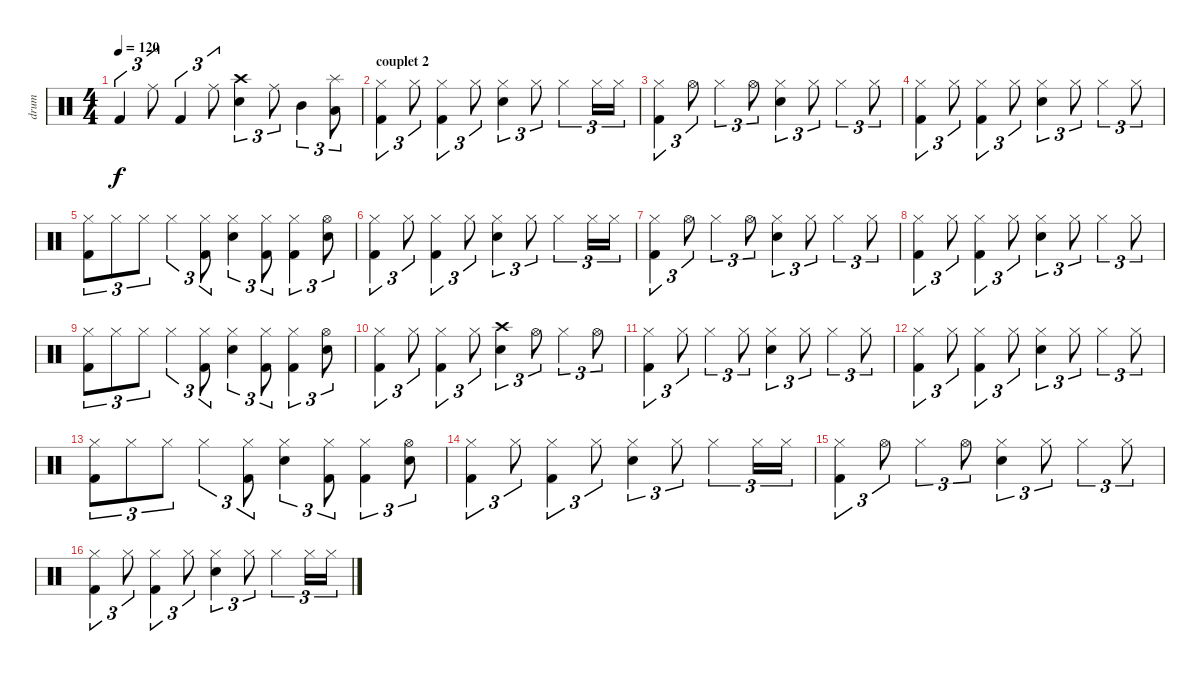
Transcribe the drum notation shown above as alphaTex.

\track ("drum" "drum") {instrument percussion}
\staff {score}
\articulation defaults
\ts (4 4)
\tempo 120
\clef neutral
\ks c "Kick (hit) 2".4{tu (3 2) dy f} "Ride (middle)".8{tu (3 2)} "Kick (hit) 2".4{tu (3 2)} "Ride (middle)".8{tu (3 2)}
("Crash high (hit)" "Electric Snare (hit)").4{tu (3 2)} "Ride (middle)".8{tu (3 2)} "Mid Tom (hit)".4{tu (3 2)} ("Splash (hit)" "Low Tom (hit)").8{tu (3 2)} |
\section ("" "couplet 2")
("Hi-Hat (closed)" "Kick (hit) 2").4{tu (3 2)} "Hi-Hat (closed)".8{tu (3 2)} ("Hi-Hat (closed)" "Kick (hit) 2").4{tu (3 2)} "Hi-Hat (closed)".8{tu (3 2)} ("Hi-Hat (closed)" "Electric Snare (hit)").4{tu (3 2)} "Hi-Hat (closed)".8{tu (3 2)} "Hi-Hat (closed)".4{tu (3 2)} "Hi-Hat (closed)".16{tu (3 2)} "Hi-Hat (closed)".16{tu (3 2)} |
("Hi-Hat (closed)" "Kick (hit) 2").4{tu (3 2)} "Hi-Hat (open)".8{tu (3 2)} "Hi-Hat (closed)".4{tu (3 2)} "Hi-Hat (open)".8{tu (3 2)} ("Hi-Hat (closed)" "Electric Snare (hit)").4{tu (3 2)} "Hi-Hat (closed)".8{tu (3 2)} "Hi-Hat (closed)".4{tu (3 2)} "Hi-Hat (closed)".8{tu (3 2)} |
("Hi-Hat (closed)" "Kick (hit) 2").4{tu (3 2)} "Hi-Hat (closed)".8{tu (3 2)} ("Hi-Hat (closed)" "Kick (hit) 2").4{tu (3 2)} "Hi-Hat (closed)".8{tu (3 2)} ("Hi-Hat (closed)" "Electric Snare (hit)").4{tu (3 2)} "Hi-Hat (closed)".8{tu (3 2)} "Hi-Hat (closed)".4{tu (3 2)} "Hi-Hat (closed)".8{tu (3 2)} |
("Hi-Hat (closed)" "Kick (hit) 2").8{tu (3 2)} "Hi-Hat (closed)".8{tu (3 2)} "Hi-Hat (closed)".8{tu (3 2)} "Hi-Hat (closed)".4{tu (3 2)} ("Hi-Hat (closed)" "Kick (hit) 2").8{tu (3 2)} ("Hi-Hat (closed)" "Electric Snare (hit)").4{tu (3 2)} ("Hi-Hat (closed)" "Kick (hit) 2").8{tu (3 2)} ("Hi-Hat (closed)" "Kick (hit) 2").4{tu (3 2)} ("Hi-Hat (open)" "Electric Snare (hit)").8{tu (3 2)} |
("Hi-Hat (closed)" "Kick (hit) 2").4{tu (3 2)} "Hi-Hat (closed)".8{tu (3 2)} ("Hi-Hat (closed)" "Kick (hit) 2").4{tu (3 2)} "Hi-Hat (closed)".8{tu (3 2)} ("Hi-Hat (closed)" "Electric Snare (hit)").4{tu (3 2)} "Hi-Hat (closed)".8{tu (3 2)} "Hi-Hat (closed)".4{tu (3 2)} "Hi-Hat (closed)".16{tu (3 2)} "Hi-Hat (closed)".16{tu (3 2)} |
("Hi-Hat (closed)" "Kick (hit) 2").4{tu (3 2)} "Hi-Hat (open)".8{tu (3 2)} "Hi-Hat (closed)".4{tu (3 2)} "Hi-Hat (open)".8{tu (3 2)} ("Hi-Hat (closed)" "Electric Snare (hit)").4{tu (3 2)} "Hi-Hat (closed)".8{tu (3 2)} "Hi-Hat (closed)".4{tu (3 2)} "Hi-Hat (closed)".8{tu (3 2)} |
("Hi-Hat (closed)" "Kick (hit) 2").4{tu (3 2)} "Hi-Hat (closed)".8{tu (3 2)} ("Hi-Hat (closed)" "Kick (hit) 2").4{tu (3 2)} "Hi-Hat (closed)".8{tu (3 2)} ("Hi-Hat (closed)" "Electric Snare (hit)").4{tu (3 2)} "Hi-Hat (closed)".8{tu (3 2)} "Hi-Hat (closed)".4{tu (3 2)} "Hi-Hat (closed)".8{tu (3 2)} |
("Hi-Hat (closed)" "Kick (hit) 2").8{tu (3 2)} "Hi-Hat (closed)".8{tu (3 2)} "Hi-Hat (closed)".8{tu (3 2)} "Hi-Hat (closed)".4{tu (3 2)} ("Hi-Hat (closed)" "Kick (hit) 2").8{tu (3 2)} ("Hi-Hat (closed)" "Electric Snare (hit)").4{tu (3 2)} ("Hi-Hat (closed)" "Kick (hit) 2").8{tu (3 2)} ("Hi-Hat (closed)" "Kick (hit) 2").4{tu (3 2)} ("Hi-Hat (open)" "Electric Snare (hit)").8{tu (3 2)} |
("Hi-Hat (closed)" "Kick (hit) 2").4{tu (3 2)} "Hi-Hat (closed)".8{tu (3 2)} ("Hi-Hat (closed)" "Kick (hit) 2").4{tu (3 2)} "Hi-Hat (closed)".8{tu (3 2)} ("Crash high (hit)" "Electric Snare (hit)").4{tu (3 2)} "Hi-Hat (open)".8{tu (3 2)} "Hi-Hat (closed)".4{tu (3 2)} "Hi-Hat (open)".8{tu (3 2)} |
("Hi-Hat (closed)" "Kick (hit) 2").4{tu (3 2)} "Hi-Hat (closed)".8{tu (3 2)} "Hi-Hat (closed)".4{tu (3 2)} "Hi-Hat (closed)".8{tu (3 2)} ("Hi-Hat (closed)" "Electric Snare (hit)").4{tu (3 2)} "Hi-Hat (closed)".8{tu (3 2)} "Hi-Hat (closed)".4{tu (3 2)} "Hi-Hat (closed)".8{tu (3 2)} |
("Hi-Hat (closed)" "Kick (hit) 2").4{tu (3 2)} "Hi-Hat (closed)".8{tu (3 2)} ("Hi-Hat (closed)" "Kick (hit) 2").4{tu (3 2)} "Hi-Hat (closed)".8{tu (3 2)} ("Hi-Hat (closed)" "Electric Snare (hit)").4{tu (3 2)} "Hi-Hat (closed)".8{tu (3 2)} "Hi-Hat (closed)".4{tu (3 2)} "Hi-Hat (closed)".8{tu (3 2)} |
("Hi-Hat (closed)" "Kick (hit) 2").8{tu (3 2)} "Hi-Hat (closed)".8{tu (3 2)} "Hi-Hat (closed)".8{tu (3 2)} "Hi-Hat (closed)".4{tu (3 2)} ("Hi-Hat (closed)" "Kick (hit) 2").8{tu (3 2)} ("Hi-Hat (closed)" "Electric Snare (hit)").4{tu (3 2)} ("Hi-Hat (closed)" "Kick (hit) 2").8{tu (3 2)} ("Hi-Hat (closed)" "Kick (hit) 2").4{tu (3 2)} ("Hi-Hat (open)" "Electric Snare (hit)").8{tu (3 2)} |
("Hi-Hat (closed)" "Kick (hit) 2").4{tu (3 2)} "Hi-Hat (closed)".8{tu (3 2)} ("Hi-Hat (closed)" "Kick (hit) 2").4{tu (3 2)} "Hi-Hat (closed)".8{tu (3 2)} ("Hi-Hat (closed)" "Electric Snare (hit)").4{tu (3 2)} "Hi-Hat (closed)".8{tu (3 2)} "Hi-Hat (closed)".4{tu (3 2)} "Hi-Hat (closed)".16{tu (3 2)} "Hi-Hat (closed)".16{tu (3 2)} |
("Hi-Hat (closed)" "Kick (hit) 2").4{tu (3 2)} "Hi-Hat (open)".8{tu (3 2)} "Hi-Hat (closed)".4{tu (3 2)} "Hi-Hat (open)".8{tu (3 2)} ("Hi-Hat (closed)" "Electric Snare (hit)").4{tu (3 2)} "Hi-Hat (closed)".8{tu (3 2)} "Hi-Hat (closed)".4{tu (3 2)} "Hi-Hat (closed)".8{tu (3 2)} |
("Hi-Hat (closed)" "Kick (hit) 2").4{tu (3 2)} "Hi-Hat (closed)".8{tu (3 2)} ("Hi-Hat (closed)" "Kick (hit) 2").4{tu (3 2)} "Hi-Hat (closed)".8{tu (3 2)} ("Hi-Hat (closed)" "Electric Snare (hit)").4{tu (3 2)} "Hi-Hat (closed)".8{tu (3 2)} "Hi-Hat (closed)".4{tu (3 2)} "Hi-Hat (closed)".16{tu (3 2)} "Hi-Hat (closed)".16{tu (3 2)}
